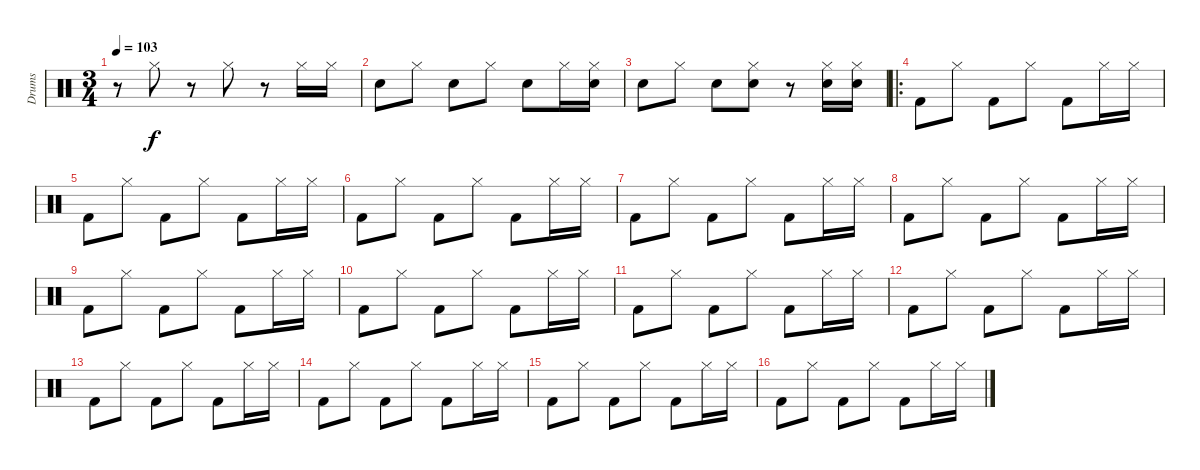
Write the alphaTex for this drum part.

\track ("Drums" "Drums") {instrument percussion}
\staff {score}
\articulation defaults
\ts (3 4)
\tempo 103
\clef neutral
\ks c
r.8{dy f} "Hi-Hat (closed)".8 r.8 "Hi-Hat (closed)".8 r.8 "Hi-Hat (closed)".16 "Hi-Hat (closed)".16 |
"Snare (hit) 2".8 "Hi-Hat (closed)".8 "Snare (hit) 2".8 "Hi-Hat (closed)".8 "Snare (hit) 2".8 "Hi-Hat (closed)".16 ("Hi-Hat (closed)" "Snare (hit) 2").16 |
"Snare (hit) 2".8 "Hi-Hat (closed)".8 "Snare (hit) 2".8 ("Hi-Hat (closed)" "Snare (hit) 2").8 r.8 ("Hi-Hat (closed)" "Snare (hit) 2").16 ("Hi-Hat (closed)" "Snare (hit) 2").16 |
\ro "Kick (hit) 2".8 "Hi-Hat (closed)".8 "Kick (hit) 2".8 "Hi-Hat (closed)".8 "Kick (hit) 2".8 "Hi-Hat (closed)".16 "Hi-Hat (closed)".16
|
"Kick (hit) 2".8 "Hi-Hat (closed)".8 "Kick (hit) 2".8 "Hi-Hat (closed)".8 "Kick (hit) 2".8 "Hi-Hat (closed)".16 "Hi-Hat (closed)".16 |
"Kick (hit) 2".8 "Hi-Hat (closed)".8 "Kick (hit) 2".8 "Hi-Hat (closed)".8 "Kick (hit) 2".8 "Hi-Hat (closed)".16 "Hi-Hat (closed)".16 |
"Kick (hit) 2".8 "Hi-Hat (closed)".8 "Kick (hit) 2".8 "Hi-Hat (closed)".8 "Kick (hit) 2".8 "Hi-Hat (closed)".16 "Hi-Hat (closed)".16 |
"Kick (hit) 2".8 "Hi-Hat (closed)".8 "Kick (hit) 2".8 "Hi-Hat (closed)".8 "Kick (hit) 2".8 "Hi-Hat (closed)".16 "Hi-Hat (closed)".16 |
"Kick (hit) 2".8 "Hi-Hat (closed)".8 "Kick (hit) 2".8 "Hi-Hat (closed)".8 "Kick (hit) 2".8 "Hi-Hat (closed)".16 "Hi-Hat (closed)".16 |
"Kick (hit) 2".8 "Hi-Hat (closed)".8 "Kick (hit) 2".8 "Hi-Hat (closed)".8 "Kick (hit) 2".8 "Hi-Hat (closed)".16 "Hi-Hat (closed)".16 |
"Kick (hit) 2".8 "Hi-Hat (closed)".8 "Kick (hit) 2".8 "Hi-Hat (closed)".8 "Kick (hit) 2".8 "Hi-Hat (closed)".16 "Hi-Hat (closed)".16 |
"Kick (hit) 2".8 "Hi-Hat (closed)".8 "Kick (hit) 2".8 "Hi-Hat (closed)".8 "Kick (hit) 2".8 "Hi-Hat (closed)".16 "Hi-Hat (closed)".16 |
"Kick (hit) 2".8 "Hi-Hat (closed)".8 "Kick (hit) 2".8 "Hi-Hat (closed)".8 "Kick (hit) 2".8 "Hi-Hat (closed)".16 "Hi-Hat (closed)".16 |
"Kick (hit) 2".8 "Hi-Hat (closed)".8 "Kick (hit) 2".8 "Hi-Hat (closed)".8 "Kick (hit) 2".8 "Hi-Hat (closed)".16 "Hi-Hat (closed)".16 |
"Kick (hit) 2".8 "Hi-Hat (closed)".8 "Kick (hit) 2".8 "Hi-Hat (closed)".8 "Kick (hit) 2".8 "Hi-Hat (closed)".16 "Hi-Hat (closed)".16 |
"Kick (hit) 2".8 "Hi-Hat (closed)".8 "Kick (hit) 2".8 "Hi-Hat (closed)".8 "Kick (hit) 2".8 "Hi-Hat (closed)".16 "Hi-Hat (closed)".16
